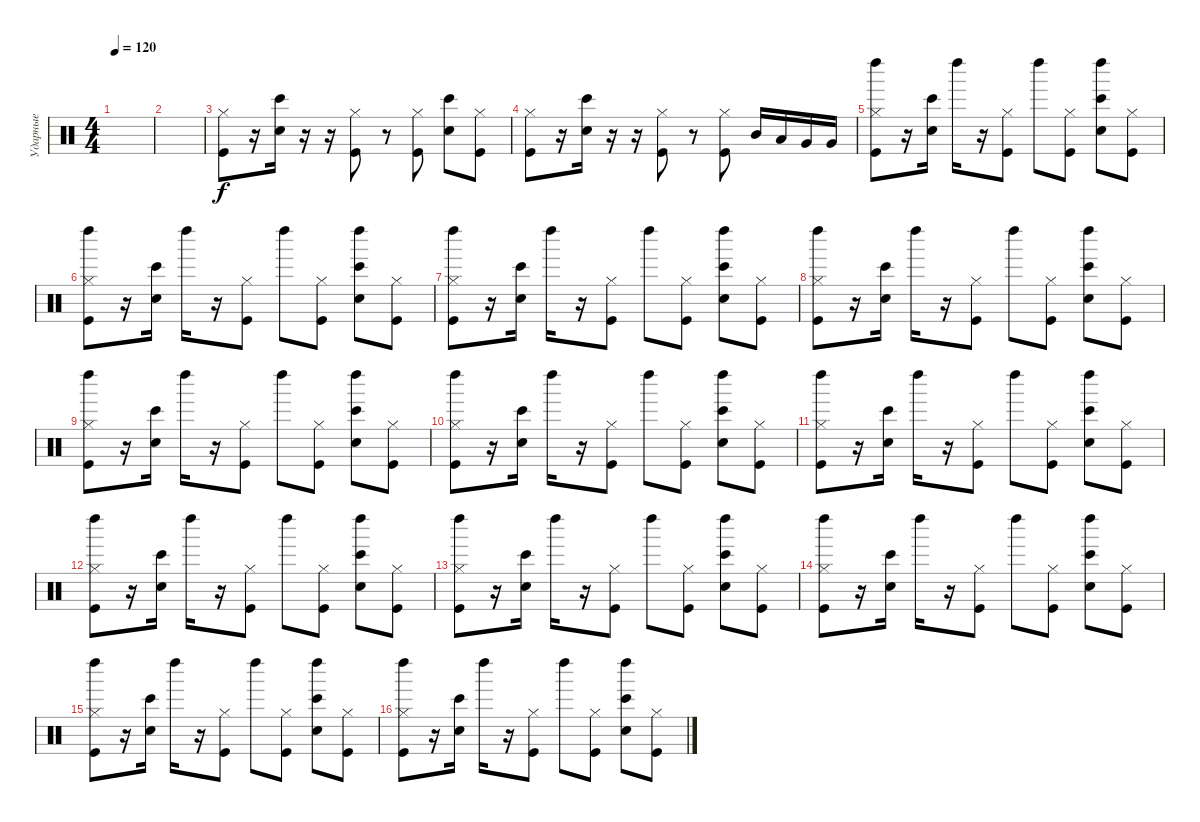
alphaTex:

\track ("Ударные" "Ударные") {instrument percussion}
\staff {score}
\articulation defaults
\ts (4 4)
\tempo 120
\clef neutral
\ks c
|
|
("Kick (hit)" "Hi-Hat (closed)").8 r.16 ("Electric Snare (hit)" "Bongo High (hit)").16 r.16 r.16 ("Kick (hit)" "Hi-Hat (closed)").8 r.8 ("Kick (hit)" "Hi-Hat (closed)").8 ("Electric Snare (hit)" "Bongo High (hit)").8 ("Kick (hit)" "Hi-Hat (closed)").8 |
("Kick (hit)" "Hi-Hat (closed)").8 r.16 ("Electric Snare (hit)" "Bongo High (hit)").16 r.16 r.16 ("Kick (hit)" "Hi-Hat (closed)").8 r.8 ("Kick (hit)" "Hi-Hat (closed)").8 "Mid Tom (hit)".16 "Low Tom (hit)".16 "Very Low Tom (hit)".16 "Very Low Tom (hit)".16 |
("Kick (hit)" "Hi-Hat (closed)" "Left Maraca (hit)").8 r.16 ("Electric Snare (hit)" "Bongo High (hit)").16 "Left Maraca (hit)".16 r.16 ("Kick (hit)" "Hi-Hat (closed)").8 "Left Maraca (hit)".8 ("Kick (hit)" "Hi-Hat (closed)").8 ("Electric Snare (hit)" "Bongo High (hit)" "Left Maraca (hit)").8 ("Kick (hit)" "Hi-Hat (closed)").8 |
("Kick (hit)" "Hi-Hat (closed)" "Left Maraca (hit)").8 r.16 ("Electric Snare (hit)" "Bongo High (hit)").16 "Left Maraca (hit)".16 r.16 ("Kick (hit)" "Hi-Hat (closed)").8 "Left Maraca (hit)".8 ("Kick (hit)" "Hi-Hat (closed)").8 ("Electric Snare (hit)" "Bongo High (hit)" "Left Maraca (hit)").8 ("Kick (hit)" "Hi-Hat (closed)").8 |
("Kick (hit)" "Hi-Hat (closed)" "Left Maraca (hit)").8 r.16 ("Electric Snare (hit)" "Bongo High (hit)").16 "Left Maraca (hit)".16 r.16 ("Kick (hit)" "Hi-Hat (closed)").8 "Left Maraca (hit)".8 ("Kick (hit)" "Hi-Hat (closed)").8 ("Electric Snare (hit)" "Bongo High (hit)" "Left Maraca (hit)").8 ("Kick (hit)" "Hi-Hat (closed)").8 |
("Kick (hit)" "Hi-Hat (closed)" "Left Maraca (hit)").8 r.16 ("Electric Snare (hit)" "Bongo High (hit)").16 "Left Maraca (hit)".16 r.16 ("Kick (hit)" "Hi-Hat (closed)").8 "Left Maraca (hit)".8 ("Kick (hit)" "Hi-Hat (closed)").8 ("Electric Snare (hit)" "Bongo High (hit)" "Left Maraca (hit)").8 ("Kick (hit)" "Hi-Hat (closed)").8 |
("Kick (hit)" "Hi-Hat (closed)" "Left Maraca (hit)").8 r.16 ("Electric Snare (hit)" "Bongo High (hit)").16 "Left Maraca (hit)".16 r.16 ("Kick (hit)" "Hi-Hat (closed)").8 "Left Maraca (hit)".8 ("Kick (hit)" "Hi-Hat (closed)").8 ("Electric Snare (hit)" "Bongo High (hit)" "Left Maraca (hit)").8 ("Kick (hit)" "Hi-Hat (closed)").8 |
("Kick (hit)" "Hi-Hat (closed)" "Left Maraca (hit)").8 r.16 ("Electric Snare (hit)" "Bongo High (hit)").16 "Left Maraca (hit)".16 r.16 ("Kick (hit)" "Hi-Hat (closed)").8 "Left Maraca (hit)".8 ("Kick (hit)" "Hi-Hat (closed)").8 ("Electric Snare (hit)" "Bongo High (hit)" "Left Maraca (hit)").8 ("Kick (hit)" "Hi-Hat (closed)").8 |
("Kick (hit)" "Hi-Hat (closed)" "Left Maraca (hit)").8 r.16 ("Electric Snare (hit)" "Bongo High (hit)").16 "Left Maraca (hit)".16 r.16 ("Kick (hit)" "Hi-Hat (closed)").8 "Left Maraca (hit)".8 ("Kick (hit)" "Hi-Hat (closed)").8 ("Electric Snare (hit)" "Bongo High (hit)" "Left Maraca (hit)").8 ("Kick (hit)" "Hi-Hat (closed)").8 |
("Kick (hit)" "Hi-Hat (closed)" "Left Maraca (hit)").8 r.16 ("Electric Snare (hit)" "Bongo High (hit)").16 "Left Maraca (hit)".16 r.16 ("Kick (hit)" "Hi-Hat (closed)").8 "Left Maraca (hit)".8 ("Kick (hit)" "Hi-Hat (closed)").8 ("Electric Snare (hit)" "Bongo High (hit)" "Left Maraca (hit)").8 ("Kick (hit)" "Hi-Hat (closed)").8 |
("Kick (hit)" "Hi-Hat (closed)" "Left Maraca (hit)").8 r.16 ("Electric Snare (hit)" "Bongo High (hit)").16 "Left Maraca (hit)".16 r.16 ("Kick (hit)" "Hi-Hat (closed)").8 "Left Maraca (hit)".8 ("Kick (hit)" "Hi-Hat (closed)").8 ("Electric Snare (hit)" "Bongo High (hit)" "Left Maraca (hit)").8 ("Kick (hit)" "Hi-Hat (closed)").8 |
("Kick (hit)" "Hi-Hat (closed)" "Left Maraca (hit)").8 r.16 ("Electric Snare (hit)" "Bongo High (hit)").16 "Left Maraca (hit)".16 r.16 ("Kick (hit)" "Hi-Hat (closed)").8 "Left Maraca (hit)".8 ("Kick (hit)" "Hi-Hat (closed)").8 ("Electric Snare (hit)" "Bongo High (hit)" "Left Maraca (hit)").8 ("Kick (hit)" "Hi-Hat (closed)").8 |
("Kick (hit)" "Hi-Hat (closed)" "Left Maraca (hit)").8 r.16 ("Electric Snare (hit)" "Bongo High (hit)").16 "Left Maraca (hit)".16 r.16 ("Kick (hit)" "Hi-Hat (closed)").8 "Left Maraca (hit)".8 ("Kick (hit)" "Hi-Hat (closed)").8 ("Electric Snare (hit)" "Bongo High (hit)" "Left Maraca (hit)").8 ("Kick (hit)" "Hi-Hat (closed)").8 |
("Kick (hit)" "Hi-Hat (closed)" "Left Maraca (hit)").8 r.16 ("Electric Snare (hit)" "Bongo High (hit)").16 "Left Maraca (hit)".16 r.16 ("Kick (hit)" "Hi-Hat (closed)").8 "Left Maraca (hit)".8 ("Kick (hit)" "Hi-Hat (closed)").8 ("Electric Snare (hit)" "Bongo High (hit)" "Left Maraca (hit)").8 ("Kick (hit)" "Hi-Hat (closed)").8
